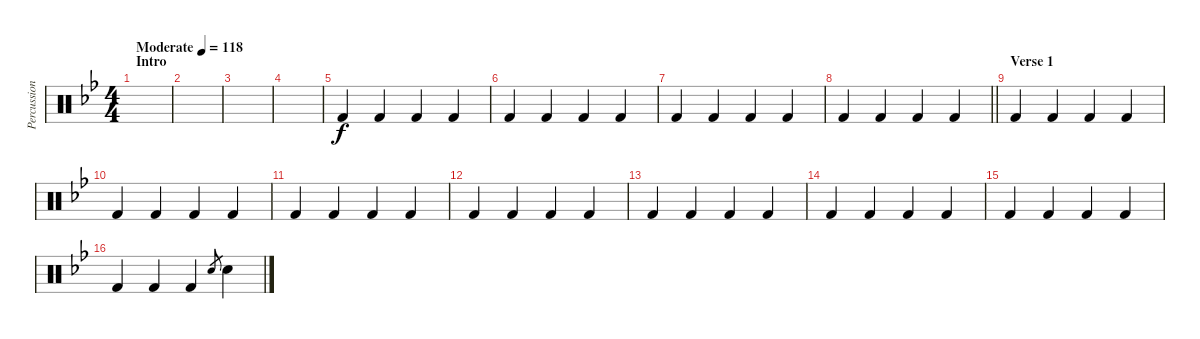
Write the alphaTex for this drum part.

\track ("Percussion" "Percussion") {instrument percussion}
\staff {score}
\articulation defaults
\ts (4 4)
\section ("" "Intro")
\tempo (118 "Moderate")
\clef neutral
\ks bb
|
|
|
|
"Kick (hit) 2".4{volume 16} "Kick (hit) 2".4 "Kick (hit) 2".4 "Kick (hit) 2".4 |
"Kick (hit) 2".4 "Kick (hit) 2".4 "Kick (hit) 2".4 "Kick (hit) 2".4 |
"Kick (hit) 2".4 "Kick (hit) 2".4 "Kick (hit) 2".4 "Kick (hit) 2".4 |
\barLineRight lightlight "Kick (hit) 2".4 "Kick (hit) 2".4 "Kick (hit) 2".4 "Kick (hit) 2".4
|
\section ("" "Verse 1")
"Kick (hit) 2".4 "Kick (hit) 2".4 "Kick (hit) 2".4 "Kick (hit) 2".4 |
"Kick (hit) 2".4 "Kick (hit) 2".4 "Kick (hit) 2".4 "Kick (hit) 2".4 |
"Kick (hit) 2".4 "Kick (hit) 2".4 "Kick (hit) 2".4 "Kick (hit) 2".4 |
"Kick (hit) 2".4 "Kick (hit) 2".4 "Kick (hit) 2".4 "Kick (hit) 2".4 |
"Kick (hit) 2".4 "Kick (hit) 2".4 "Kick (hit) 2".4 "Kick (hit) 2".4 |
"Kick (hit) 2".4 "Kick (hit) 2".4 "Kick (hit) 2".4 "Kick (hit) 2".4 |
"Kick (hit) 2".4 "Kick (hit) 2".4 "Kick (hit) 2".4 "Kick (hit) 2".4 |
"Kick (hit) 2".4 "Kick (hit) 2".4 "Kick (hit) 2".4 "Electric Snare (hit)".8{gr} "Electric Snare (hit)".4
